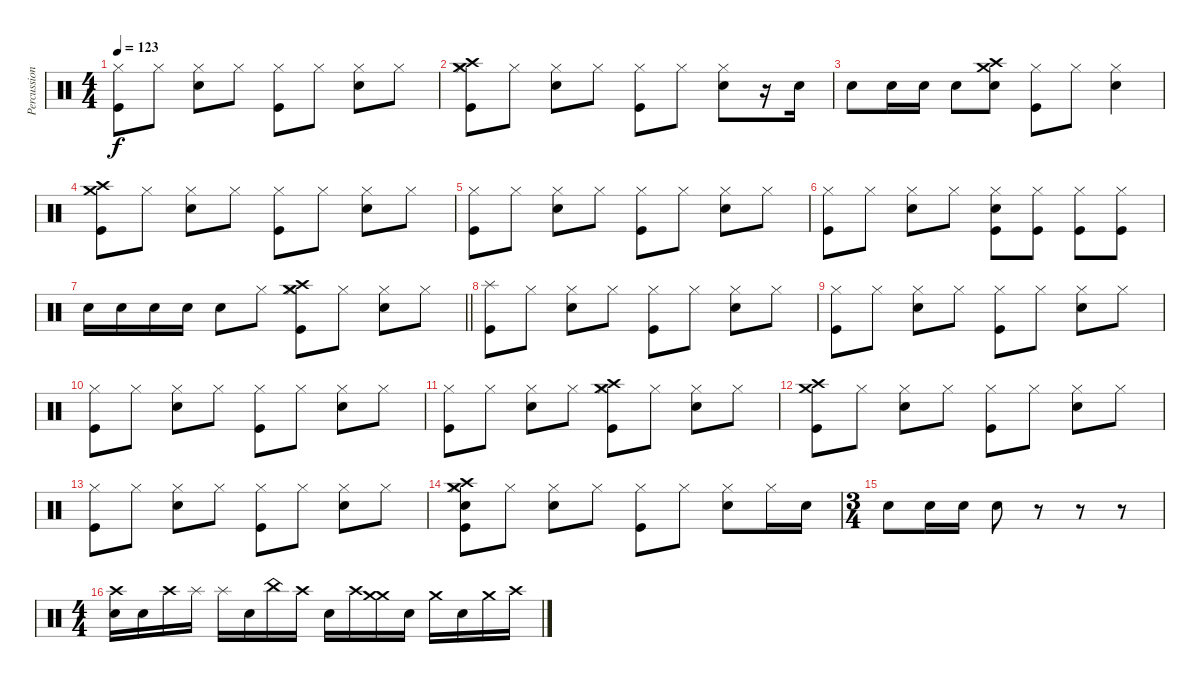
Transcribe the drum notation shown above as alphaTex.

\track ("Percussion" "Percussion") {instrument percussion}
\staff {score}
\articulation defaults
\ts (4 4)
\tempo 123
\clef neutral
\ks c
("Hi-Hat (closed)" "Kick (hit)").8{dy f} "Hi-Hat (closed)".8 ("Hi-Hat (closed)" "Snare (hit) 2").8 "Hi-Hat (closed)".8 ("Hi-Hat (closed)" "Kick (hit)").8 "Hi-Hat (closed)".8 ("Hi-Hat (closed)" "Snare (hit) 2").8 "Hi-Hat (closed)".8 |
("Hi-Hat (closed)" "Kick (hit)" "Crash high (hit)" "Crash medium (hit)").8 "Hi-Hat (closed)".8 ("Hi-Hat (closed)" "Snare (hit) 2").8 "Hi-Hat (closed)".8 ("Hi-Hat (closed)" "Kick (hit)").8 "Hi-Hat (closed)".8 ("Hi-Hat (closed)" "Snare (hit) 2").8 r.16 "Snare (hit) 2".16 |
"Snare (hit) 2".8 "Snare (hit) 2".16 "Snare (hit) 2".16 "Snare (hit) 2".8 ("Snare (hit) 2" "Crash high (hit)" "Crash medium (hit)").8 ("Hi-Hat (closed)" "Kick (hit)").8 "Hi-Hat (closed)".8 ("Hi-Hat (closed)" "Snare (hit) 2").4 |
("Crash high (hit)" "Kick (hit)" "Crash medium (hit)").8 "Hi-Hat (closed)".8 ("Hi-Hat (closed)" "Snare (hit) 2").8 "Hi-Hat (closed)".8 ("Hi-Hat (closed)" "Kick (hit)").8 "Hi-Hat (closed)".8 ("Hi-Hat (closed)" "Snare (hit) 2").8 "Hi-Hat (closed)".8 |
("Hi-Hat (closed)" "Kick (hit)").8 "Hi-Hat (closed)".8 ("Hi-Hat (closed)" "Snare (hit) 2").8 "Hi-Hat (closed)".8 ("Hi-Hat (closed)" "Kick (hit)").8 "Hi-Hat (closed)".8 ("Hi-Hat (closed)" "Snare (hit) 2").8 "Hi-Hat (closed)".8 |
("Hi-Hat (closed)" "Kick (hit)").8 "Hi-Hat (closed)".8 ("Hi-Hat (closed)" "Snare (hit) 2").8 "Hi-Hat (closed)".8 ("Hi-Hat (closed)" "Kick (hit)" "Snare (hit) 2").8 ("Hi-Hat (closed)" "Kick (hit)").8 ("Hi-Hat (closed)" "Kick (hit)").8 ("Hi-Hat (closed)" "Kick (hit)").8 |
\barLineRight lightlight "Snare (hit) 2".16 "Snare (hit) 2".16 "Snare (hit) 2".16 "Snare (hit) 2".16 "Snare (hit) 2".8 "Hi-Hat (closed)".8
("Hi-Hat (closed)" "Kick (hit)" "Crash high (hit)" "Crash medium (hit)").8 "Hi-Hat (closed)".8 ("Hi-Hat (closed)" "Snare (hit) 2").8 "Hi-Hat (closed)".8 |
("Kick (hit)" "Splash (hit)").8 "Hi-Hat (closed)".8 ("Hi-Hat (closed)" "Snare (hit) 2").8 "Hi-Hat (closed)".8 ("Hi-Hat (closed)" "Kick (hit)").8 "Hi-Hat (closed)".8 ("Hi-Hat (closed)" "Snare (hit) 2").8 "Hi-Hat (closed)".8 |
("Hi-Hat (closed)" "Kick (hit)").8 "Hi-Hat (closed)".8 ("Hi-Hat (closed)" "Snare (hit) 2").8 "Hi-Hat (closed)".8 ("Hi-Hat (closed)" "Kick (hit)").8 "Hi-Hat (closed)".8 ("Hi-Hat (closed)" "Snare (hit) 2").8 "Hi-Hat (closed)".8 |
("Hi-Hat (closed)" "Kick (hit)").8 "Hi-Hat (closed)".8 ("Hi-Hat (closed)" "Snare (hit) 2").8 "Hi-Hat (closed)".8 ("Hi-Hat (closed)" "Kick (hit)").8 "Hi-Hat (closed)".8 ("Hi-Hat (closed)" "Snare (hit) 2").8 "Hi-Hat (closed)".8 |
("Hi-Hat (closed)" "Kick (hit)").8 "Hi-Hat (closed)".8 ("Hi-Hat (closed)" "Snare (hit) 2").8 "Hi-Hat (closed)".8 ("Hi-Hat (closed)" "Kick (hit)" "Crash medium (hit)" "Crash high (hit)").8 "Hi-Hat (closed)".8 ("Hi-Hat (closed)" "Snare (hit) 2").8 "Hi-Hat (closed)".8 |
("Crash high (hit)" "Kick (hit)" "Crash medium (hit)").8 "Hi-Hat (closed)".8 ("Hi-Hat (closed)" "Snare (hit) 2").8 "Hi-Hat (closed)".8 ("Hi-Hat (closed)" "Kick (hit)").8 "Hi-Hat (closed)".8 ("Hi-Hat (closed)" "Snare (hit) 2").8 "Hi-Hat (closed)".8 |
("Hi-Hat (closed)" "Kick (hit)").8 "Hi-Hat (closed)".8 ("Hi-Hat (closed)" "Snare (hit) 2").8 "Hi-Hat (closed)".8 ("Hi-Hat (closed)" "Kick (hit)").8 "Hi-Hat (closed)".8 ("Hi-Hat (closed)" "Snare (hit) 2").8 "Hi-Hat (closed)".8 |
("Hi-Hat (closed)" "Kick (hit)" "Crash high (hit)" "Crash medium (hit)" "Snare (hit) 2").8 "Hi-Hat (closed)".8 ("Hi-Hat (closed)" "Snare (hit) 2").8 "Hi-Hat (closed)".8 ("Hi-Hat (closed)" "Kick (hit)").8 "Hi-Hat (closed)".8 ("Hi-Hat (closed)" "Snare (hit) 2").8 "Hi-Hat (closed)".16 "Snare (hit) 2".16 |
\ts (3 4)
"Snare (hit) 2".8 "Snare (hit) 2".16 "Snare (hit) 2".16 "Snare (hit) 2".8 r.8 r.8 r.8 |
\ts (4 4)
("Snare (hit) 2" "Crash high (hit)").16 "Snare (hit) 2".16 "Crash high (hit)".16 "Splash (hit)".16 "Splash (hit)".16 "Snare (hit) 2".16 "China (hit)".16 "Crash high (hit)".16 "Snare (hit) 2".16 "Crash high (hit)".16 ("Crash medium (hit)" "Crash medium (hit)").16 "Snare (hit) 2".16 "Crash medium (hit)".16 "Snare (hit) 2".16 "Crash medium (hit)".16 "Crash high (hit)".16
